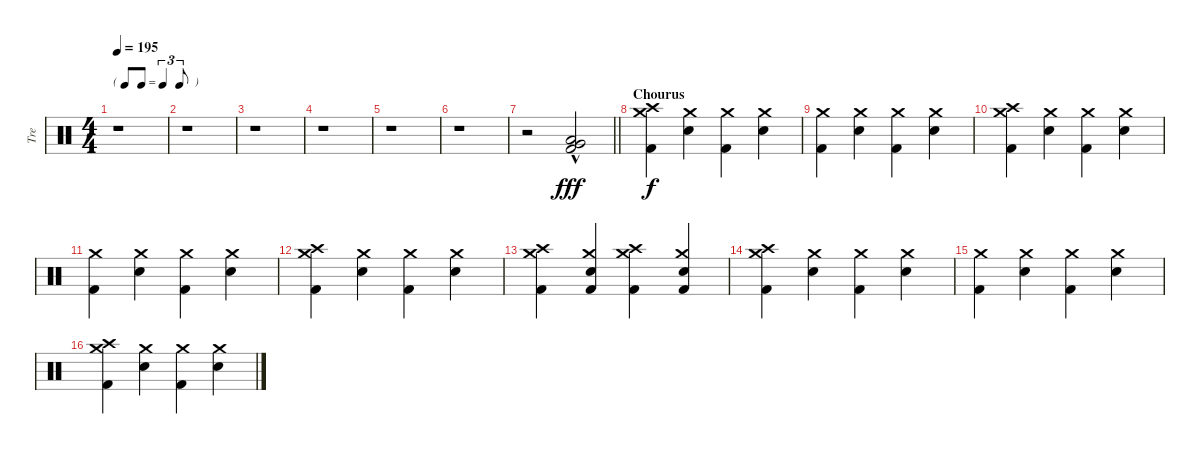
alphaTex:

\track ("Tre" "Tre") {instrument percussion}
\staff {score}
\articulation defaults
\ts (4 4)
\tf triplet8th
\tempo 195
\clef neutral
\ks c
r.1{dy fff} |
r.1 |
r.1 |
r.1 |
r.1 |
r.1 |
\barLineRight lightlight
r.2 ("Very Low Tom (hit)"{hac} "Low Floor Tom (hit)"{hac} "Kick (hit) 2"{hac}).2 |
\section ("" "Chourus")
("Crash medium (hit)" "Crash high (hit)" "Kick (hit) 2").4{dy f} ("Crash medium (hit)" "Snare (hit) 2").4 ("Crash medium (hit)" "Kick (hit) 2").4 ("Crash medium (hit)" "Snare (hit) 2").4 |
("Crash medium (hit)" "Kick (hit) 2").4 ("Crash medium (hit)" "Snare (hit) 2").4 ("Crash medium (hit)" "Kick (hit) 2").4 ("Crash medium (hit)" "Snare (hit) 2").4 |
("Crash medium (hit)" "Crash high (hit)" "Kick (hit) 2").4 ("Crash medium (hit)" "Snare (hit) 2").4 ("Crash medium (hit)" "Kick (hit) 2").4 ("Crash medium (hit)" "Snare (hit) 2").4 |
("Crash medium (hit)" "Kick (hit) 2").4 ("Crash medium (hit)" "Snare (hit) 2").4 ("Crash medium (hit)" "Kick (hit) 2").4 ("Crash medium (hit)" "Snare (hit) 2").4 |
("Crash medium (hit)" "Crash high (hit)" "Kick (hit) 2").4 ("Crash medium (hit)" "Snare (hit) 2").4 ("Crash medium (hit)" "Kick (hit) 2").4 ("Crash medium (hit)" "Snare (hit) 2").4 |
("Crash medium (hit)" "Crash high (hit)" "Kick (hit) 2").4 ("Crash medium (hit)" "Snare (hit) 2" "Kick (hit) 2").4 ("Crash medium (hit)" "Crash high (hit)" "Kick (hit) 2").4 ("Crash medium (hit)" "Snare (hit) 2" "Kick (hit) 2").4 |
("Crash medium (hit)" "Crash high (hit)" "Kick (hit) 2").4 ("Crash medium (hit)" "Snare (hit) 2").4 ("Crash medium (hit)" "Kick (hit) 2").4 ("Crash medium (hit)" "Snare (hit) 2").4 |
("Crash medium (hit)" "Kick (hit) 2").4 ("Crash medium (hit)" "Snare (hit) 2").4 ("Crash medium (hit)" "Kick (hit) 2").4 ("Crash medium (hit)" "Snare (hit) 2").4 |
("Crash medium (hit)" "Crash high (hit)" "Kick (hit) 2").4 ("Crash medium (hit)" "Snare (hit) 2").4 ("Crash medium (hit)" "Kick (hit) 2").4 ("Crash medium (hit)" "Snare (hit) 2").4
